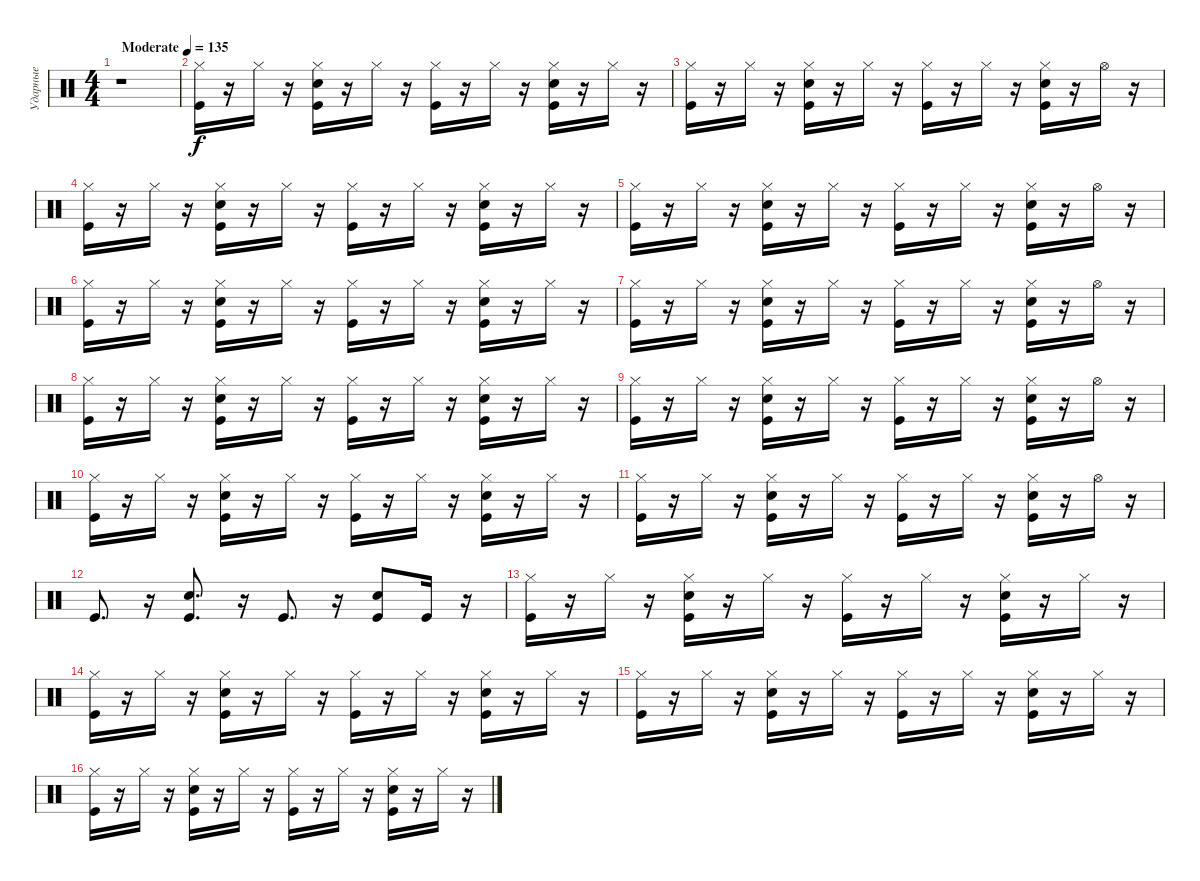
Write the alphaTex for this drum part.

\track ("Ударные" "Ударные") {instrument percussion}
\staff {score}
\articulation defaults
\ts (4 4)
\tempo (135 "Moderate")
\clef neutral
\ks c
r.1{dy f} |
("Hi-Hat (closed)" "Kick (hit)").16 r.16 "Hi-Hat (closed)".16 r.16 ("Hi-Hat (closed)" "Kick (hit)" "Snare (hit) 2").16 r.16 "Hi-Hat (closed)".16 r.16 ("Hi-Hat (closed)" "Kick (hit)").16 r.16 "Hi-Hat (closed)".16 r.16 ("Hi-Hat (closed)" "Snare (hit) 2" "Kick (hit)").16 r.16 "Hi-Hat (closed)".16 r.16 |
("Hi-Hat (closed)" "Kick (hit)").16 r.16 "Hi-Hat (closed)".16 r.16 ("Hi-Hat (closed)" "Kick (hit)" "Snare (hit) 2").16 r.16 "Hi-Hat (closed)".16 r.16 ("Hi-Hat (closed)" "Kick (hit)").16 r.16 "Hi-Hat (closed)".16 r.16 ("Hi-Hat (closed)" "Snare (hit) 2" "Kick (hit)").16 r.16 "Hi-Hat (open)".16 r.16 |
("Hi-Hat (closed)" "Kick (hit)").16 r.16 "Hi-Hat (closed)".16 r.16 ("Hi-Hat (closed)" "Kick (hit)" "Snare (hit) 2").16 r.16 "Hi-Hat (closed)".16 r.16 ("Hi-Hat (closed)" "Kick (hit)").16 r.16 "Hi-Hat (closed)".16 r.16 ("Hi-Hat (closed)" "Snare (hit) 2" "Kick (hit)").16 r.16 "Hi-Hat (closed)".16 r.16 |
("Hi-Hat (closed)" "Kick (hit)").16 r.16 "Hi-Hat (closed)".16 r.16 ("Hi-Hat (closed)" "Kick (hit)" "Snare (hit) 2").16 r.16 "Hi-Hat (closed)".16 r.16 ("Hi-Hat (closed)" "Kick (hit)").16 r.16 "Hi-Hat (closed)".16 r.16 ("Hi-Hat (closed)" "Snare (hit) 2" "Kick (hit)").16 r.16 "Hi-Hat (open)".16 r.16 |
("Hi-Hat (closed)" "Kick (hit)").16 r.16 "Hi-Hat (closed)".16 r.16 ("Hi-Hat (closed)" "Kick (hit)" "Snare (hit) 2").16 r.16 "Hi-Hat (closed)".16 r.16 ("Hi-Hat (closed)" "Kick (hit)").16 r.16 "Hi-Hat (closed)".16 r.16 ("Hi-Hat (closed)" "Snare (hit) 2" "Kick (hit)").16 r.16 "Hi-Hat (closed)".16 r.16 |
("Hi-Hat (closed)" "Kick (hit)").16 r.16 "Hi-Hat (closed)".16 r.16 ("Hi-Hat (closed)" "Kick (hit)" "Snare (hit) 2").16 r.16 "Hi-Hat (closed)".16 r.16 ("Hi-Hat (closed)" "Kick (hit)").16 r.16 "Hi-Hat (closed)".16 r.16 ("Hi-Hat (closed)" "Snare (hit) 2" "Kick (hit)").16 r.16 "Hi-Hat (open)".16 r.16 |
("Hi-Hat (closed)" "Kick (hit)").16 r.16 "Hi-Hat (closed)".16 r.16 ("Hi-Hat (closed)" "Kick (hit)" "Snare (hit) 2").16 r.16 "Hi-Hat (closed)".16 r.16 ("Hi-Hat (closed)" "Kick (hit)").16 r.16 "Hi-Hat (closed)".16 r.16 ("Hi-Hat (closed)" "Snare (hit) 2" "Kick (hit)").16 r.16 "Hi-Hat (closed)".16 r.16 |
("Hi-Hat (closed)" "Kick (hit)").16 r.16 "Hi-Hat (closed)".16 r.16 ("Hi-Hat (closed)" "Kick (hit)" "Snare (hit) 2").16 r.16 "Hi-Hat (closed)".16 r.16 ("Hi-Hat (closed)" "Kick (hit)").16 r.16 "Hi-Hat (closed)".16 r.16 ("Hi-Hat (closed)" "Snare (hit) 2" "Kick (hit)").16 r.16 "Hi-Hat (open)".16 r.16 |
("Hi-Hat (closed)" "Kick (hit)").16 r.16 "Hi-Hat (closed)".16 r.16 ("Hi-Hat (closed)" "Kick (hit)" "Snare (hit) 2").16 r.16 "Hi-Hat (closed)".16 r.16 ("Hi-Hat (closed)" "Kick (hit)").16 r.16 "Hi-Hat (closed)".16 r.16 ("Hi-Hat (closed)" "Snare (hit) 2" "Kick (hit)").16 r.16 "Hi-Hat (closed)".16 r.16 |
("Hi-Hat (closed)" "Kick (hit)").16 r.16 "Hi-Hat (closed)".16 r.16 ("Hi-Hat (closed)" "Kick (hit)" "Snare (hit) 2").16 r.16 "Hi-Hat (closed)".16 r.16 ("Hi-Hat (closed)" "Kick (hit)").16 r.16 "Hi-Hat (closed)".16 r.16 ("Hi-Hat (closed)" "Snare (hit) 2" "Kick (hit)").16 r.16 "Hi-Hat (open)".16 r.16 |
"Kick (hit)".8{d} r.16 ("Kick (hit)" "Snare (hit) 2").8{d} r.16 "Kick (hit)".8{d} r.16 ("Snare (hit) 2" "Kick (hit)").8 "Kick (hit)".16 r.16 |
("Hi-Hat (closed)" "Kick (hit)").16 r.16 "Hi-Hat (closed)".16 r.16 ("Hi-Hat (closed)" "Kick (hit)" "Snare (hit) 2").16 r.16 "Hi-Hat (closed)".16 r.16 ("Hi-Hat (closed)" "Kick (hit)").16 r.16 "Hi-Hat (closed)".16 r.16 ("Hi-Hat (closed)" "Snare (hit) 2" "Kick (hit)").16 r.16 "Hi-Hat (closed)".16 r.16 |
("Hi-Hat (closed)" "Kick (hit)").16 r.16 "Hi-Hat (closed)".16 r.16 ("Hi-Hat (closed)" "Kick (hit)" "Snare (hit) 2").16 r.16 "Hi-Hat (closed)".16 r.16 ("Hi-Hat (closed)" "Kick (hit)").16 r.16 "Hi-Hat (closed)".16 r.16 ("Hi-Hat (closed)" "Snare (hit) 2" "Kick (hit)").16 r.16 "Hi-Hat (closed)".16 r.16 |
("Hi-Hat (closed)" "Kick (hit)").16 r.16 "Hi-Hat (closed)".16 r.16 ("Hi-Hat (closed)" "Kick (hit)" "Snare (hit) 2").16 r.16 "Hi-Hat (closed)".16 r.16 ("Hi-Hat (closed)" "Kick (hit)").16 r.16 "Hi-Hat (closed)".16 r.16 ("Hi-Hat (closed)" "Snare (hit) 2" "Kick (hit)").16 r.16 "Hi-Hat (closed)".16 r.16 |
("Hi-Hat (closed)" "Kick (hit)").16 r.16 "Hi-Hat (closed)".16 r.16 ("Hi-Hat (closed)" "Kick (hit)" "Snare (hit) 2").16 r.16 "Hi-Hat (closed)".16 r.16 ("Hi-Hat (closed)" "Kick (hit)").16 r.16 "Hi-Hat (closed)".16 r.16 ("Hi-Hat (closed)" "Snare (hit) 2" "Kick (hit)").16 r.16 "Hi-Hat (closed)".16 r.16
